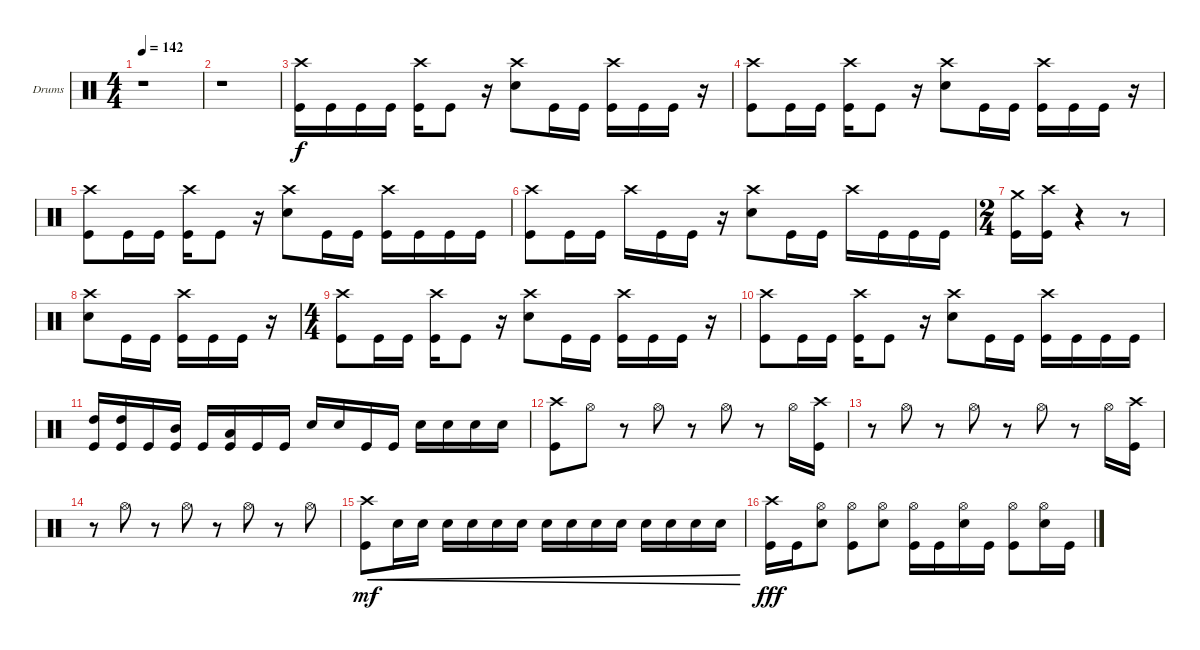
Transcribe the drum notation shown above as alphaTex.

\defaultSystemsLayout 4
\bracketExtendMode groupsimilarinstruments
\firstSystemTrackNameOrientation horizontal
\otherSystemsTrackNameOrientation horizontal
\track ("Drumkit" "Drums") {instrument percussion}
\staff {score}
\articulation defaults
\ts (4 4)
\tempo 142
\clef neutral
\scale
0.472222
\ks c
r.1{dy f} |
\scale
0.263889 r.1 |
\scale
0.263889 ("Kick (hit)" "Crash high (hit)").16 "Kick (hit)".16 "Kick (hit)".16 "Kick (hit)".16 ("Kick (hit)" "Crash high (hit)").16 "Kick (hit)".8 r.16 ("Snare (hit) 2" "Crash high (hit)").8 "Kick (hit)".16 "Kick (hit)".16 ("Kick (hit)" "Crash high (hit)").16 "Kick (hit)".16 "Kick (hit)".16 r.16 |
\scale
0.333333 ("Crash high (hit)" "Kick (hit)").8 "Kick (hit)".16 "Kick (hit)".16 ("Kick (hit)" "Crash high (hit)").16 "Kick (hit)".8 r.16 ("Snare (hit) 2" "Crash high (hit)").8 "Kick (hit)".16 "Kick (hit)".16 ("Kick (hit)" "Crash high (hit)").16 "Kick (hit)".16 "Kick (hit)".16 r.16 |
\scale
0.333333 ("Crash high (hit)" "Kick (hit)").8 "Kick (hit)".16 "Kick (hit)".16 ("Kick (hit)" "Crash high (hit)").16 "Kick (hit)".8 r.16 ("Snare (hit) 2" "Crash high (hit)").8 "Kick (hit)".16 "Kick (hit)".16 ("Kick (hit)" "Crash high (hit)").16 "Kick (hit)".16 "Kick (hit)".16 "Kick (hit)".16 |
\scale
0.333333 ("Crash high (hit)" "Kick (hit)").8 "Kick (hit)".16 "Kick (hit)".16 "Crash high (hit)".16 "Kick (hit)".16 "Kick (hit)".16 r.16 ("Snare (hit) 2" "Crash high (hit)").8 "Kick (hit)".16 "Kick (hit)".16 "Crash high (hit)".16 "Kick (hit)".16 "Kick (hit)".16 "Kick (hit)".16 |
\ts (2 4)
\scale
0.390805 ("Kick (hit)" "Crash medium (hit)").16 ("Kick (hit)" "Crash high (hit)").16 r.4 r.8 |
\scale
0.218391 ("Snare (hit) 2" "Crash high (hit)").8 "Kick (hit)".16 "Kick (hit)".16 ("Kick (hit)" "Crash high (hit)").16 "Kick (hit)".16 "Kick (hit)".16 r.16 |
\ts (4 4)
\scale
0.390805 ("Crash high (hit)" "Kick (hit)").8 "Kick (hit)".16 "Kick (hit)".16 ("Kick (hit)" "Crash high (hit)").16 "Kick (hit)".8 r.16 ("Snare (hit) 2" "Crash high (hit)").8 "Kick (hit)".16 "Kick (hit)".16 ("Kick (hit)" "Crash high (hit)").16 "Kick (hit)".16 "Kick (hit)".16 r.16 |
\scale
0.333333 ("Crash high (hit)" "Kick (hit)").8 "Kick (hit)".16 "Kick (hit)".16 ("Kick (hit)" "Crash high (hit)").16 "Kick (hit)".8 r.16 ("Snare (hit) 2" "Crash high (hit)").8 "Kick (hit)".16 "Kick (hit)".16 ("Kick (hit)" "Crash high (hit)").16 "Kick (hit)".16 "Kick (hit)".16 "Kick (hit)".16 |
\scale
0.333333 ("Kick (hit)" "High Tom (hit)").16 ("Kick (hit)" "High Tom (hit)").16 "Kick (hit)".16 ("Kick (hit)" "Mid Tom (hit)").16 "Kick (hit)".16 ("Kick (hit)" "Low Tom (hit)").16 "Kick (hit)".16 "Kick (hit)".16 "Snare (hit) 2".16 "Snare (hit) 2".16 "Kick (hit)".16 "Kick (hit)".16 "Snare (hit) 2".16 "Snare (hit) 2".16 "Snare (hit) 2".16 "Snare (hit) 2".16 |
\scale
0.333333 ("Kick (hit)" "Crash high (hit)").8 "Hi-Hat (open)".8 r.8 "Hi-Hat (open)".8 r.8 "Hi-Hat (open)".8 r.8 "Hi-Hat (open)".16 ("Kick (hit)" "Crash high (hit)").16 |
\scale
0.333333 r.8 "Hi-Hat (open)".8 r.8 "Hi-Hat (open)".8 r.8 "Hi-Hat (open)".8 r.8 "Hi-Hat (open)".16 ("Kick (hit)" "Crash high (hit)").16 |
\scale
0.333333 r.8 "Hi-Hat (open)".8 r.8 "Hi-Hat (open)".8 r.8 "Hi-Hat (open)".8 r.8 "Hi-Hat (open)".8 |
\scale
0.333333 ("Kick (hit)" "Crash high (hit)").8{cre dy mf} "Snare (hit) 2".16{cre} "Snare (hit) 2".16{cre} "Snare (hit) 2".16{cre} "Snare (hit) 2".16{cre} "Snare (hit) 2".16{cre} "Snare (hit) 2".16{cre} "Snare (hit) 2".16{cre} "Snare (hit) 2".16{cre} "Snare (hit) 2".16{cre} "Snare (hit) 2".16{cre} "Snare (hit) 2".16{cre} "Snare (hit) 2".16{cre} "Snare (hit) 2".16{cre} "Snare (hit) 2".16{cre} |
\scale
0.333333 ("Kick (hit)" "Crash high (hit)").16{dy fff} "Kick (hit)".16 ("Hi-Hat (open)" "Snare (hit) 2").8 ("Hi-Hat (open)" "Kick (hit)").8 ("Hi-Hat (open)" "Snare (hit) 2").8 ("Kick (hit)" "Hi-Hat (open)").16 "Kick (hit)".16 ("Hi-Hat (open)" "Snare (hit) 2").16 "Kick (hit)".16 ("Hi-Hat (open)" "Kick (hit)").8 ("Snare (hit) 2" "Hi-Hat (open)").16 "Kick (hit)".16
